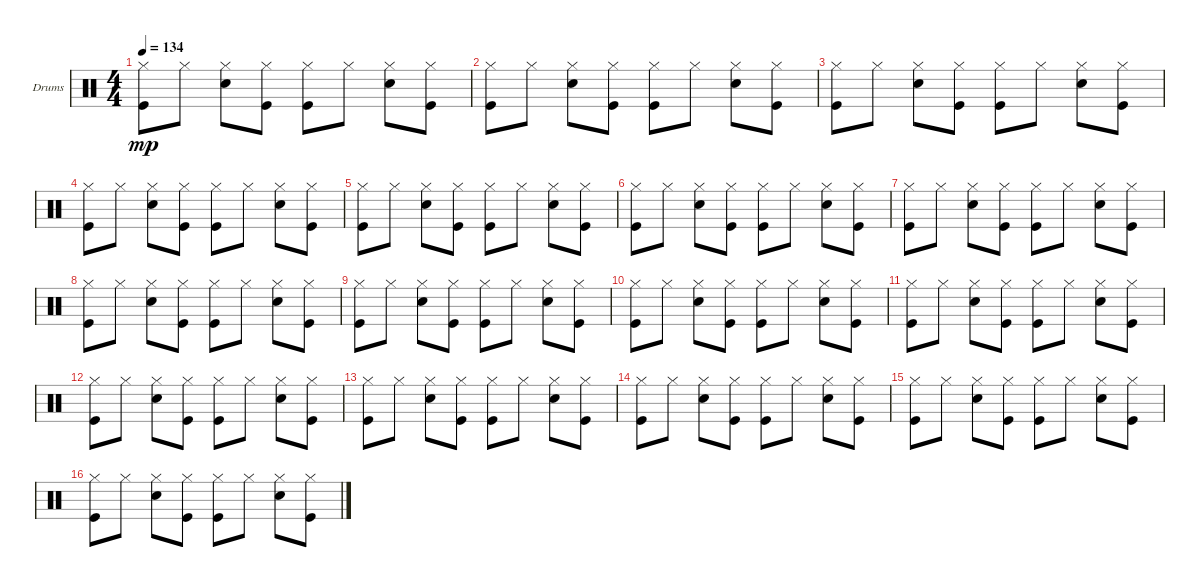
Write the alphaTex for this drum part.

\bracketExtendMode groupsimilarinstruments
\firstSystemTrackNameOrientation horizontal
\otherSystemsTrackNameOrientation horizontal
\track ("Drumkit" "Drums") {instrument percussion}
\staff {score}
\articulation defaults
\ts (4 4)
\tempo 134
\clef neutral
\ks c
("Kick (hit)" "Hi-Hat (closed)").8{dy mp} "Hi-Hat (closed)".8 ("Snare (hit) 2" "Hi-Hat (closed)").8 ("Kick (hit)" "Hi-Hat (closed)").8 ("Kick (hit)" "Hi-Hat (closed)").8 "Hi-Hat (closed)".8 ("Snare (hit) 2" "Hi-Hat (closed)").8 ("Hi-Hat (closed)" "Kick (hit)").8 |
("Kick (hit)" "Hi-Hat (closed)").8 "Hi-Hat (closed)".8 ("Snare (hit) 2" "Hi-Hat (closed)").8 ("Kick (hit)" "Hi-Hat (closed)").8 ("Kick (hit)" "Hi-Hat (closed)").8 "Hi-Hat (closed)".8 ("Snare (hit) 2" "Hi-Hat (closed)").8 ("Hi-Hat (closed)" "Kick (hit)").8 |
("Kick (hit)" "Hi-Hat (closed)").8 "Hi-Hat (closed)".8 ("Snare (hit) 2" "Hi-Hat (closed)").8 ("Kick (hit)" "Hi-Hat (closed)").8 ("Kick (hit)" "Hi-Hat (closed)").8 "Hi-Hat (closed)".8 ("Snare (hit) 2" "Hi-Hat (closed)").8 ("Hi-Hat (closed)" "Kick (hit)").8 |
("Kick (hit)" "Hi-Hat (closed)").8 "Hi-Hat (closed)".8 ("Snare (hit) 2" "Hi-Hat (closed)").8 ("Kick (hit)" "Hi-Hat (closed)").8 ("Kick (hit)" "Hi-Hat (closed)").8 "Hi-Hat (closed)".8 ("Snare (hit) 2" "Hi-Hat (closed)").8 ("Hi-Hat (closed)" "Kick (hit)").8 |
("Kick (hit)" "Hi-Hat (closed)").8 "Hi-Hat (closed)".8 ("Snare (hit) 2" "Hi-Hat (closed)").8 ("Kick (hit)" "Hi-Hat (closed)").8 ("Kick (hit)" "Hi-Hat (closed)").8 "Hi-Hat (closed)".8 ("Snare (hit) 2" "Hi-Hat (closed)").8 ("Hi-Hat (closed)" "Kick (hit)").8 |
("Kick (hit)" "Hi-Hat (closed)").8 "Hi-Hat (closed)".8 ("Snare (hit) 2" "Hi-Hat (closed)").8 ("Kick (hit)" "Hi-Hat (closed)").8 ("Kick (hit)" "Hi-Hat (closed)").8 "Hi-Hat (closed)".8 ("Snare (hit) 2" "Hi-Hat (closed)").8 ("Hi-Hat (closed)" "Kick (hit)").8 |
("Kick (hit)" "Hi-Hat (closed)").8 "Hi-Hat (closed)".8 ("Snare (hit) 2" "Hi-Hat (closed)").8 ("Kick (hit)" "Hi-Hat (closed)").8 ("Kick (hit)" "Hi-Hat (closed)").8 "Hi-Hat (closed)".8 ("Snare (hit) 2" "Hi-Hat (closed)").8 ("Hi-Hat (closed)" "Kick (hit)").8 |
("Kick (hit)" "Hi-Hat (closed)").8 "Hi-Hat (closed)".8 ("Snare (hit) 2" "Hi-Hat (closed)").8 ("Kick (hit)" "Hi-Hat (closed)").8 ("Kick (hit)" "Hi-Hat (closed)").8 "Hi-Hat (closed)".8 ("Snare (hit) 2" "Hi-Hat (closed)").8 ("Hi-Hat (closed)" "Kick (hit)").8 |
("Kick (hit)" "Hi-Hat (closed)").8 "Hi-Hat (closed)".8 ("Snare (hit) 2" "Hi-Hat (closed)").8 ("Kick (hit)" "Hi-Hat (closed)").8 ("Kick (hit)" "Hi-Hat (closed)").8 "Hi-Hat (closed)".8 ("Snare (hit) 2" "Hi-Hat (closed)").8 ("Hi-Hat (closed)" "Kick (hit)").8 |
("Kick (hit)" "Hi-Hat (closed)").8 "Hi-Hat (closed)".8 ("Snare (hit) 2" "Hi-Hat (closed)").8 ("Kick (hit)" "Hi-Hat (closed)").8 ("Kick (hit)" "Hi-Hat (closed)").8 "Hi-Hat (closed)".8 ("Snare (hit) 2" "Hi-Hat (closed)").8 ("Hi-Hat (closed)" "Kick (hit)").8 |
("Kick (hit)" "Hi-Hat (closed)").8 "Hi-Hat (closed)".8 ("Snare (hit) 2" "Hi-Hat (closed)").8 ("Kick (hit)" "Hi-Hat (closed)").8 ("Kick (hit)" "Hi-Hat (closed)").8 "Hi-Hat (closed)".8 ("Snare (hit) 2" "Hi-Hat (closed)").8 ("Hi-Hat (closed)" "Kick (hit)").8 |
("Kick (hit)" "Hi-Hat (closed)").8 "Hi-Hat (closed)".8 ("Snare (hit) 2" "Hi-Hat (closed)").8 ("Kick (hit)" "Hi-Hat (closed)").8 ("Kick (hit)" "Hi-Hat (closed)").8 "Hi-Hat (closed)".8 ("Snare (hit) 2" "Hi-Hat (closed)").8 ("Hi-Hat (closed)" "Kick (hit)").8 |
("Kick (hit)" "Hi-Hat (closed)").8 "Hi-Hat (closed)".8 ("Snare (hit) 2" "Hi-Hat (closed)").8 ("Kick (hit)" "Hi-Hat (closed)").8 ("Kick (hit)" "Hi-Hat (closed)").8 "Hi-Hat (closed)".8 ("Snare (hit) 2" "Hi-Hat (closed)").8 ("Hi-Hat (closed)" "Kick (hit)").8 |
("Kick (hit)" "Hi-Hat (closed)").8 "Hi-Hat (closed)".8 ("Snare (hit) 2" "Hi-Hat (closed)").8 ("Kick (hit)" "Hi-Hat (closed)").8 ("Kick (hit)" "Hi-Hat (closed)").8 "Hi-Hat (closed)".8 ("Snare (hit) 2" "Hi-Hat (closed)").8 ("Hi-Hat (closed)" "Kick (hit)").8 |
("Kick (hit)" "Hi-Hat (closed)").8 "Hi-Hat (closed)".8 ("Snare (hit) 2" "Hi-Hat (closed)").8 ("Kick (hit)" "Hi-Hat (closed)").8 ("Kick (hit)" "Hi-Hat (closed)").8 "Hi-Hat (closed)".8 ("Snare (hit) 2" "Hi-Hat (closed)").8 ("Hi-Hat (closed)" "Kick (hit)").8 |
("Kick (hit)" "Hi-Hat (closed)").8 "Hi-Hat (closed)".8 ("Snare (hit) 2" "Hi-Hat (closed)").8 ("Kick (hit)" "Hi-Hat (closed)").8 ("Kick (hit)" "Hi-Hat (closed)").8 "Hi-Hat (closed)".8 ("Snare (hit) 2" "Hi-Hat (closed)").8 ("Hi-Hat (closed)" "Kick (hit)").8
